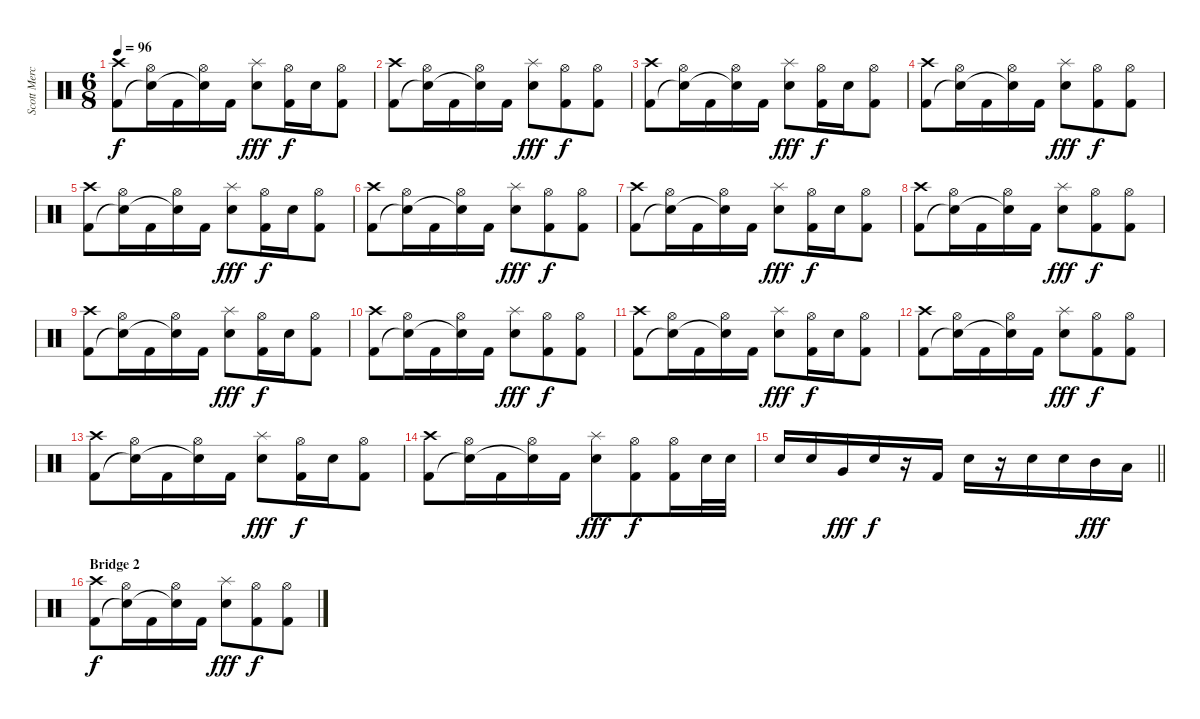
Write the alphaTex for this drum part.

\track ("Scott Mercado Drums" "Scott Merc") {instrument percussion}
\staff {score}
\articulation defaults
\ts (6 8)
\tempo 96
\clef neutral
\ks c
("Crash high (hit)" "Kick (hit) 2").8{dy f} ("Hi-Hat (open)" "Snare (hit)"{t}).16 "Kick (hit) 2".16 ("Hi-Hat (open)" "Snare (hit)"{t}).16 "Kick (hit) 2".16 ("Splash (hit)" "Electric Snare (hit)").8{dy fff} ("Hi-Hat (open)" "Kick (hit) 2").16{dy f} "Electric Snare (hit)".16 ("Hi-Hat (open)" "Kick (hit) 2").8 |
("Crash high (hit)" "Kick (hit) 2").8 ("Hi-Hat (open)" "Snare (hit)"{t}).16 "Kick (hit) 2".16 ("Hi-Hat (open)" "Snare (hit)"{t}).16 "Kick (hit) 2".16 ("Splash (hit)" "Electric Snare (hit)").8{dy fff} ("Hi-Hat (open)" "Kick (hit) 2").8{dy f} ("Hi-Hat (open)" "Kick (hit) 2").8 |
("Crash high (hit)" "Kick (hit) 2").8 ("Hi-Hat (open)" "Snare (hit)"{t}).16 "Kick (hit) 2".16 ("Hi-Hat (open)" "Snare (hit)"{t}).16 "Kick (hit) 2".16 ("Splash (hit)" "Electric Snare (hit)").8{dy fff} ("Hi-Hat (open)" "Kick (hit) 2").16{dy f} "Electric Snare (hit)".16 ("Hi-Hat (open)" "Kick (hit) 2").8 |
("Crash high (hit)" "Kick (hit) 2").8 ("Hi-Hat (open)" "Snare (hit)"{t}).16 "Kick (hit) 2".16 ("Hi-Hat (open)" "Snare (hit)"{t}).16 "Kick (hit) 2".16 ("Splash (hit)" "Electric Snare (hit)").8{dy fff} ("Hi-Hat (open)" "Kick (hit) 2").8{dy f} ("Hi-Hat (open)" "Kick (hit) 2").8 |
("Crash high (hit)" "Kick (hit) 2").8 ("Hi-Hat (open)" "Snare (hit)"{t}).16 "Kick (hit) 2".16 ("Hi-Hat (open)" "Snare (hit)"{t}).16 "Kick (hit) 2".16 ("Splash (hit)" "Electric Snare (hit)").8{dy fff} ("Hi-Hat (open)" "Kick (hit) 2").16{dy f} "Electric Snare (hit)".16 ("Hi-Hat (open)" "Kick (hit) 2").8 |
("Crash high (hit)" "Kick (hit) 2").8 ("Hi-Hat (open)" "Snare (hit)"{t}).16 "Kick (hit) 2".16 ("Hi-Hat (open)" "Snare (hit)"{t}).16 "Kick (hit) 2".16 ("Splash (hit)" "Electric Snare (hit)").8{dy fff} ("Hi-Hat (open)" "Kick (hit) 2").8{dy f} ("Hi-Hat (open)" "Kick (hit) 2").8 |
("Crash high (hit)" "Kick (hit) 2").8 ("Hi-Hat (open)" "Snare (hit)"{t}).16 "Kick (hit) 2".16 ("Hi-Hat (open)" "Snare (hit)"{t}).16 "Kick (hit) 2".16 ("Splash (hit)" "Electric Snare (hit)").8{dy fff} ("Hi-Hat (open)" "Kick (hit) 2").16{dy f} "Electric Snare (hit)".16 ("Hi-Hat (open)" "Kick (hit) 2").8 |
("Crash high (hit)" "Kick (hit) 2").8 ("Hi-Hat (open)" "Snare (hit)"{t}).16 "Kick (hit) 2".16 ("Hi-Hat (open)" "Snare (hit)"{t}).16 "Kick (hit) 2".16 ("Splash (hit)" "Electric Snare (hit)").8{dy fff} ("Hi-Hat (open)" "Kick (hit) 2").8{dy f} ("Hi-Hat (open)" "Kick (hit) 2").8 |
("Crash high (hit)" "Kick (hit) 2").8 ("Hi-Hat (open)" "Snare (hit)"{t}).16 "Kick (hit) 2".16 ("Hi-Hat (open)" "Snare (hit)"{t}).16 "Kick (hit) 2".16 ("Splash (hit)" "Electric Snare (hit)").8{dy fff} ("Hi-Hat (open)" "Kick (hit) 2").16{dy f} "Electric Snare (hit)".16 ("Hi-Hat (open)" "Kick (hit) 2").8 |
("Crash high (hit)" "Kick (hit) 2").8 ("Hi-Hat (open)" "Snare (hit)"{t}).16 "Kick (hit) 2".16 ("Hi-Hat (open)" "Snare (hit)"{t}).16 "Kick (hit) 2".16 ("Splash (hit)" "Electric Snare (hit)").8{dy fff} ("Hi-Hat (open)" "Kick (hit) 2").8{dy f} ("Hi-Hat (open)" "Kick (hit) 2").8 |
("Crash high (hit)" "Kick (hit) 2").8 ("Hi-Hat (open)" "Snare (hit)"{t}).16 "Kick (hit) 2".16 ("Hi-Hat (open)" "Snare (hit)"{t}).16 "Kick (hit) 2".16 ("Splash (hit)" "Electric Snare (hit)").8{dy fff} ("Hi-Hat (open)" "Kick (hit) 2").16{dy f} "Electric Snare (hit)".16 ("Hi-Hat (open)" "Kick (hit) 2").8 |
("Crash high (hit)" "Kick (hit) 2").8 ("Hi-Hat (open)" "Snare (hit)"{t}).16 "Kick (hit) 2".16 ("Hi-Hat (open)" "Snare (hit)"{t}).16 "Kick (hit) 2".16 ("Splash (hit)" "Electric Snare (hit)").8{dy fff} ("Hi-Hat (open)" "Kick (hit) 2").8{dy f} ("Hi-Hat (open)" "Kick (hit) 2").8 |
("Crash high (hit)" "Kick (hit) 2").8 ("Hi-Hat (open)" "Snare (hit)"{t}).16 "Kick (hit) 2".16 ("Hi-Hat (open)" "Snare (hit)"{t}).16 "Kick (hit) 2".16 ("Splash (hit)" "Electric Snare (hit)").8{dy fff} ("Hi-Hat (open)" "Kick (hit) 2").16{dy f} "Electric Snare (hit)".16 ("Hi-Hat (open)" "Kick (hit) 2").8 |
("Crash high (hit)" "Kick (hit) 2").8 ("Hi-Hat (open)" "Snare (hit)"{t}).16 "Kick (hit) 2".16 ("Hi-Hat (open)" "Snare (hit)"{t}).16 "Kick (hit) 2".16 ("Splash (hit)" "Electric Snare (hit)").8{dy fff} ("Hi-Hat (open)" "Kick (hit) 2").8{dy f} ("Hi-Hat (open)" "Kick (hit) 2").16 "Electric Snare (hit)".32 "Electric Snare (hit)".32 |
\barLineRight lightlight "Electric Snare (hit)".16 "Electric Snare (hit)".16 "Very Low Tom (hit)".16{dy fff} "Electric Snare (hit)".16{dy f}
r.16 "Kick (hit) 2".16 "Electric Snare (hit)".16 r.16 "Electric Snare (hit)".16 "Electric Snare (hit)".16 "Mid Tom (hit)".16{dy fff} "Low Tom (hit)".16 |
\section ("" "Bridge 2")
("Crash high (hit)" "Kick (hit) 2").8{dy f} ("Hi-Hat (open)" "Snare (hit)"{t}).16 "Kick (hit) 2".16 ("Hi-Hat (open)" "Snare (hit)"{t}).16 "Kick (hit) 2".16 ("Splash (hit)" "Electric Snare (hit)").8{dy fff} ("Hi-Hat (open)" "Kick (hit) 2").8{dy f} ("Hi-Hat (open)" "Kick (hit) 2").8
